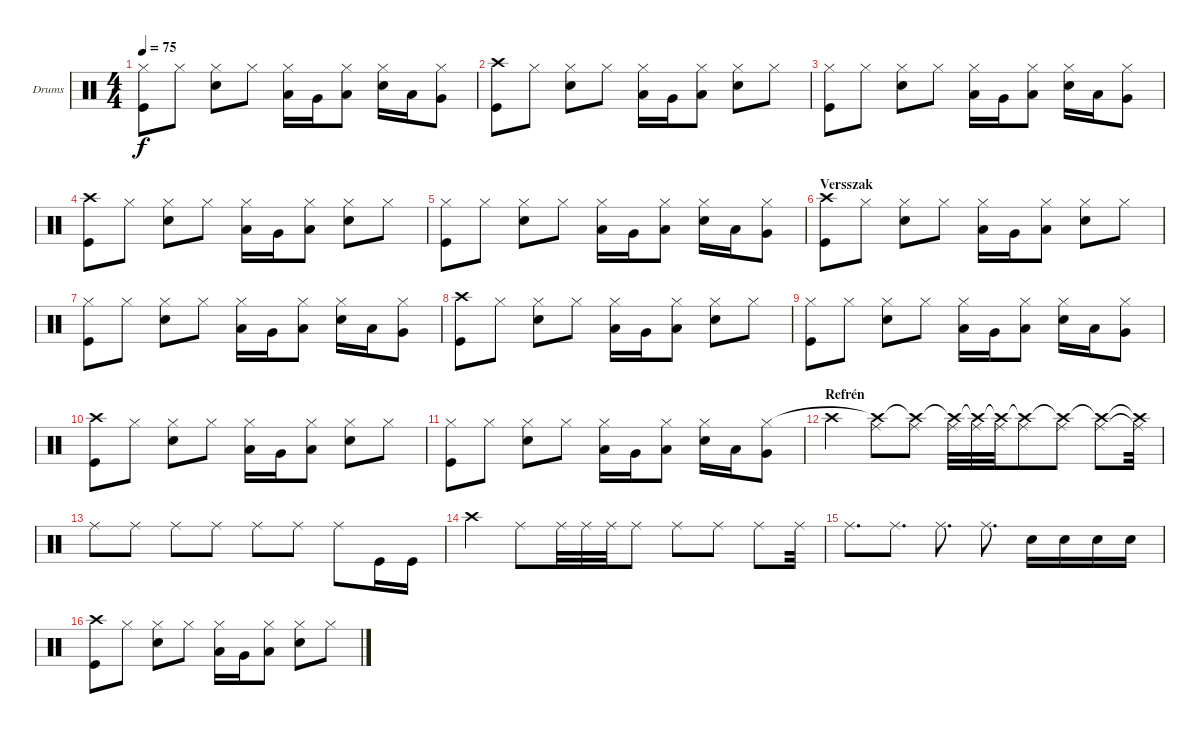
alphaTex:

\defaultSystemsLayout 4
\bracketExtendMode groupsimilarinstruments
\firstSystemTrackNameOrientation horizontal
\otherSystemsTrackNameOrientation horizontal
\track ("Craig Nunenmacher" "Drums") {instrument percussion}
\staff {score}
\articulation defaults
\ts (4 4)
\tempo 75
\clef neutral
\ks c
("Kick (hit)" "Hi-Hat (closed)").8{dy f} "Hi-Hat (closed)".8 ("Snare (hit) 2" "Hi-Hat (closed)").8 "Hi-Hat (closed)".8 ("Low Tom (hit)" "Hi-Hat (closed)").16 "Very Low Tom (hit)".16 ("Low Tom (hit)" "Hi-Hat (closed)").8 ("Snare (hit) 2" "Hi-Hat (closed)").16 "Low Tom (hit)".16 ("Very Low Tom (hit)" "Hi-Hat (closed)").8 |
("Kick (hit)" "Crash high (hit)").8 "Hi-Hat (closed)".8 ("Snare (hit) 2" "Hi-Hat (closed)").8 "Hi-Hat (closed)".8 ("Low Tom (hit)" "Hi-Hat (closed)").16 "Very Low Tom (hit)".16 ("Low Tom (hit)" "Hi-Hat (closed)").8 ("Snare (hit) 2" "Hi-Hat (closed)").8 "Hi-Hat (closed)".8 |
("Kick (hit)" "Hi-Hat (closed)").8 "Hi-Hat (closed)".8 ("Snare (hit) 2" "Hi-Hat (closed)").8 "Hi-Hat (closed)".8 ("Low Tom (hit)" "Hi-Hat (closed)").16 "Very Low Tom (hit)".16 ("Low Tom (hit)" "Hi-Hat (closed)").8 ("Snare (hit) 2" "Hi-Hat (closed)").16 "Low Tom (hit)".16 ("Very Low Tom (hit)" "Hi-Hat (closed)").8 |
("Kick (hit)" "Crash high (hit)").8 "Hi-Hat (closed)".8 ("Snare (hit) 2" "Hi-Hat (closed)").8 "Hi-Hat (closed)".8 ("Low Tom (hit)" "Hi-Hat (closed)").16 "Very Low Tom (hit)".16 ("Low Tom (hit)" "Hi-Hat (closed)").8 ("Snare (hit) 2" "Hi-Hat (closed)").8 "Hi-Hat (closed)".8 |
("Kick (hit)" "Hi-Hat (closed)").8 "Hi-Hat (closed)".8 ("Snare (hit) 2" "Hi-Hat (closed)").8 "Hi-Hat (closed)".8 ("Low Tom (hit)" "Hi-Hat (closed)").16 "Very Low Tom (hit)".16 ("Low Tom (hit)" "Hi-Hat (closed)").8 ("Snare (hit) 2" "Hi-Hat (closed)").16 "Low Tom (hit)".16 ("Very Low Tom (hit)" "Hi-Hat (closed)").8 |
\section ("" "Versszak")
("Kick (hit)" "Crash high (hit)").8 "Hi-Hat (closed)".8 ("Snare (hit) 2" "Hi-Hat (closed)").8 "Hi-Hat (closed)".8 ("Low Tom (hit)" "Hi-Hat (closed)").16 "Very Low Tom (hit)".16 ("Low Tom (hit)" "Hi-Hat (closed)").8 ("Snare (hit) 2" "Hi-Hat (closed)").8 "Hi-Hat (closed)".8 |
("Kick (hit)" "Hi-Hat (closed)").8 "Hi-Hat (closed)".8 ("Snare (hit) 2" "Hi-Hat (closed)").8 "Hi-Hat (closed)".8 ("Low Tom (hit)" "Hi-Hat (closed)").16 "Very Low Tom (hit)".16 ("Low Tom (hit)" "Hi-Hat (closed)").8 ("Snare (hit) 2" "Hi-Hat (closed)").16 "Low Tom (hit)".16 ("Very Low Tom (hit)" "Hi-Hat (closed)").8 |
("Kick (hit)" "Crash high (hit)").8 "Hi-Hat (closed)".8 ("Snare (hit) 2" "Hi-Hat (closed)").8 "Hi-Hat (closed)".8 ("Low Tom (hit)" "Hi-Hat (closed)").16 "Very Low Tom (hit)".16 ("Low Tom (hit)" "Hi-Hat (closed)").8 ("Snare (hit) 2" "Hi-Hat (closed)").8 "Hi-Hat (closed)".8 |
("Kick (hit)" "Hi-Hat (closed)").8 "Hi-Hat (closed)".8 ("Snare (hit) 2" "Hi-Hat (closed)").8 "Hi-Hat (closed)".8 ("Low Tom (hit)" "Hi-Hat (closed)").16 "Very Low Tom (hit)".16 ("Low Tom (hit)" "Hi-Hat (closed)").8 ("Snare (hit) 2" "Hi-Hat (closed)").16 "Low Tom (hit)".16 ("Very Low Tom (hit)" "Hi-Hat (closed)").8 |
("Kick (hit)" "Crash high (hit)").8 "Hi-Hat (closed)".8 ("Snare (hit) 2" "Hi-Hat (closed)").8 "Hi-Hat (closed)".8 ("Low Tom (hit)" "Hi-Hat (closed)").16 "Very Low Tom (hit)".16 ("Low Tom (hit)" "Hi-Hat (closed)").8 ("Snare (hit) 2" "Hi-Hat (closed)").8 "Hi-Hat (closed)".8 |
("Kick (hit)" "Hi-Hat (closed)").8 "Hi-Hat (closed)".8 ("Snare (hit) 2" "Hi-Hat (closed)").8 "Hi-Hat (closed)".8 ("Low Tom (hit)" "Hi-Hat (closed)").16 "Very Low Tom (hit)".16 ("Low Tom (hit)" "Hi-Hat (closed)").8 ("Snare (hit) 2" "Hi-Hat (closed)").16 "Low Tom (hit)".16 ("Very Low Tom (hit)" "Hi-Hat (closed)").8 |
\section ("" "Refrén")
"Crash high (hit)".4 ("Ride (middle)" "Crash high (hit)"{t}).8 ("Ride (middle)" "Crash high (hit)"{t}).8 ("Ride (middle)" "Crash high (hit)"{t}).32 ("Ride (middle)" "Crash high (hit)"{t}).32 ("Ride (middle)" "Crash high (hit)"{t}).32 ("Ride (middle)" "Crash high (hit)"{t}).8 ("Ride (middle)" "Crash high (hit)"{t}).8 ("Ride (middle)" "Crash high (hit)"{t}).8 ("Ride (middle)"{t} "Crash high (hit)"{t}).32 |
"Ride (middle)".8 "Ride (middle)".8 "Ride (middle)".8 "Ride (middle)".8 "Ride (middle)".8 "Ride (middle)".8 "Ride (middle)".8 "Kick (hit)".16 "Kick (hit)".16 |
"Crash high (hit)".4 "Ride (middle)".8 "Ride (middle)".32 "Ride (middle)".32 "Ride (middle)".32 "Ride (middle)".8 "Ride (middle)".8 "Ride (middle)".8 "Ride (middle)".8 "Ride (middle)".32 |
"Ride (middle)".8{d} "Ride (middle)".8{d} "Ride (middle)".8{d} "Ride (middle)".8{d} "Snare (hit) 2".16 "Snare (hit) 2".16 "Snare (hit) 2".16 "Snare (hit) 2".16 |
("Kick (hit)" "Crash high (hit)").8 "Hi-Hat (closed)".8 ("Snare (hit) 2" "Hi-Hat (closed)").8 "Hi-Hat (closed)".8 ("Low Tom (hit)" "Hi-Hat (closed)").16 "Very Low Tom (hit)".16 ("Low Tom (hit)" "Hi-Hat (closed)").8 ("Snare (hit) 2" "Hi-Hat (closed)").8 "Hi-Hat (closed)".8
